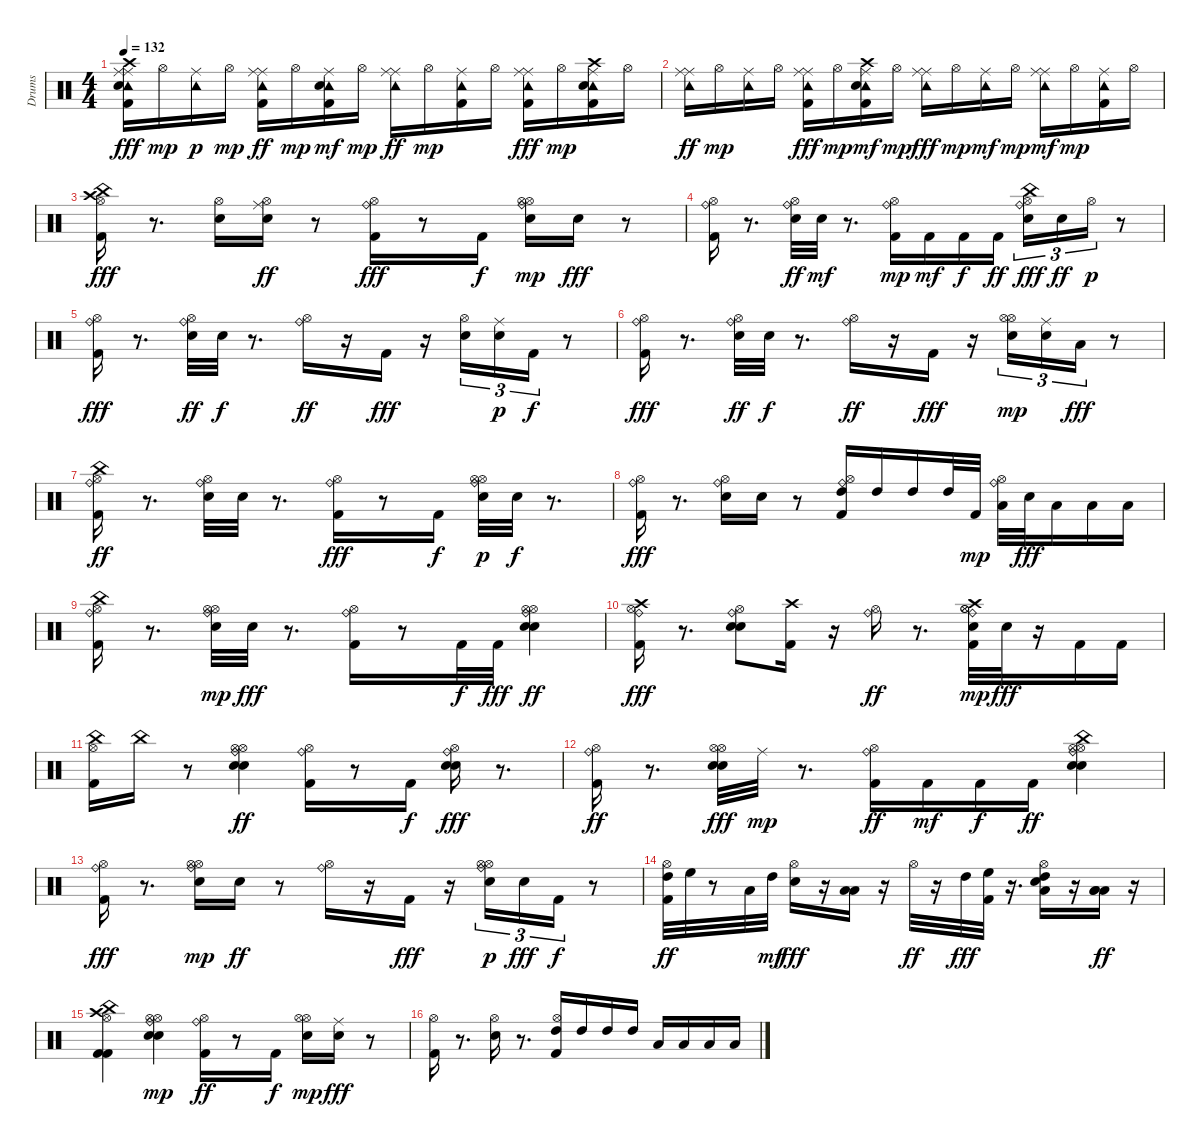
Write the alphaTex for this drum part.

\track ("Drums" "Drums") {instrument percussion}
\staff {score}
\articulation defaults
\ts (4 4)
\tempo 132
\clef neutral
\ks c
("Tambourine (hit)" "Ride (middle)" "Crash high (hit)" "Snare (hit) 2" "Kick (hit) 2" "Ride (middle)").16{dy fff} "Hi-Hat (open)".16{dy mp} ("Tambourine (hit)" "Ride (middle)").16{dy p} "Hi-Hat (open)".16{dy mp} ("Tambourine (hit)" "Ride (middle)" "Kick (hit) 2" "Ride (middle)").16{dy ff} "Hi-Hat (open)".16{dy mp} ("Tambourine (hit)" "Snare (hit) 2" "Kick (hit) 2" "Ride (middle)").16{dy mf} "Hi-Hat (open)".16{dy mp} ("Tambourine (hit)" "Ride (middle)" "Ride (middle)").16{dy ff} "Hi-Hat (open)".16{dy mp} ("Tambourine (hit)" "Kick (hit) 2" "Ride (middle)").16 "Hi-Hat (open)".16 ("Tambourine (hit)" "Ride (middle)" "Kick (hit) 2" "Ride (middle)").16{dy fff} "Hi-Hat (open)".16{dy mp} ("Tambourine (hit)" "Crash high (hit)" "Snare (hit) 2" "Kick (hit) 2" "Ride (middle)").16 "Hi-Hat (open)".16 |
("Tambourine (hit)" "Ride (middle)" "Ride (middle)").16{dy ff} "Hi-Hat (open)".16{dy mp} ("Tambourine (hit)" "Ride (middle)").16 "Hi-Hat (open)".16 ("Tambourine (hit)" "Ride (middle)" "Kick (hit) 2" "Ride (middle)").16{dy fff} "Hi-Hat (open)".16{dy mp} ("Tambourine (hit)" "Crash high (hit)" "Snare (hit) 2" "Kick (hit) 2" "Ride (middle)").16{dy mf} "Hi-Hat (open)".16{dy mp} ("Tambourine (hit)" "Ride (middle)" "Ride (middle)").16{dy fff} "Hi-Hat (open)".16{dy mp} ("Tambourine (hit)" "Ride (middle)").16{dy mf} "Hi-Hat (open)".16{dy mp} ("Tambourine (hit)" "Ride (middle)" "Ride (middle)").16{dy mf} "Hi-Hat (open)".16{dy mp} ("Tambourine (hit)" "Kick (hit) 2" "Ride (middle)").16 "Hi-Hat (open)".16 |
("China (hit)" "Hi-Hat (open)" "Kick (hit) 2" "Crash high (hit)").16{dy fff} r.8{d} ("Hi-Hat (open)" "Snare (hit) 2").16 ("Snare (hit) 2" "Hi-Hat (open)" "Ride (middle)").16{dy ff} r.8 ("Hi-Hat (open)" "Kick (hit) 2" "Ride (bell)").16{dy fff} r.8 "Kick (hit) 2".16{dy f} ("Hi-Hat (open)" "Snare (hit) 2" "Ride (bell)" "Hi-Hat (open)").16{dy mp} "Snare (hit) 2".16{dy fff} r.8 |
("Hi-Hat (open)" "Kick (hit) 2" "Ride (bell)").16 r.8{d} ("Hi-Hat (open)" "Snare (hit) 2" "Ride (bell)").32{dy ff} "Snare (hit) 2".32{dy mf} r.8{d} ("Hi-Hat (open)" "Kick (hit) 2" "Ride (bell)").16{dy mp} "Kick (hit) 2".16{dy mf} "Kick (hit) 2".16{dy f} "Kick (hit) 2".16{dy ff} ("Hi-Hat (open)" "China (hit)" "Snare (hit) 2" "Ride (bell)").16{tu (3 2) dy fff} "Snare (hit) 2".16{tu (3 2) dy ff} "Hi-Hat (open)".16{tu (3 2) dy p} r.8 |
("Hi-Hat (open)" "Kick (hit) 2" "Ride (bell)").16{dy fff} r.8{d} ("Hi-Hat (open)" "Snare (hit) 2" "Ride (bell)").32{dy ff} "Snare (hit) 2".32{dy f} r.8{d} ("Hi-Hat (open)" "Ride (bell)").16{dy ff} r.16 "Kick (hit) 2".16{dy fff} r.16 ("Hi-Hat (open)" "Snare (hit) 2").16{tu (3 2)} ("Snare (hit) 2" "Ride (middle)").16{tu (3 2) dy p} "Kick (hit) 2".16{tu (3 2) dy f} r.8 |
("Hi-Hat (open)" "Kick (hit) 2" "Ride (bell)").16{dy fff} r.8{d} ("Hi-Hat (open)" "Snare (hit) 2" "Ride (bell)").32{dy ff} "Snare (hit) 2".32{dy f} r.8{d} ("Hi-Hat (open)" "Ride (bell)").16{dy ff} r.16 "Kick (hit) 2".16{dy fff} r.16 ("Hi-Hat (open)" "Snare (hit) 2" "Hi-Hat (open)").16{tu (3 2) dy mp} ("Electric Snare (hit)" "Ride (middle)").16{tu (3 2)} "Low Tom (hit)".16{tu (3 2) dy fff} r.8 |
("China (hit)" "Hi-Hat (open)" "Kick (hit) 2" "Ride (bell)").16{dy ff} r.8{d} ("Hi-Hat (open)" "Snare (hit) 2" "Ride (bell)").32 "Snare (hit) 2".32 r.8{d} ("Hi-Hat (open)" "Kick (hit) 2" "Ride (bell)").16{dy fff} r.8 "Kick (hit) 2".16{dy f} ("Hi-Hat (open)" "Snare (hit) 2" "Ride (bell)" "Hi-Hat (open)").32{dy p} "Snare (hit) 2".32{dy f} r.8{d} |
("Hi-Hat (open)" "Kick (hit) 2" "Ride (bell)").16{dy fff} r.8{d} ("Hi-Hat (open)" "Snare (hit) 2" "Ride (bell)").16 "Snare (hit) 2".16 r.8 ("High Tom (hit)" "Hi-Hat (open)" "Kick (hit) 2" "Ride (bell)").16 "High Tom (hit)".16 "High Tom (hit)".16 "High Tom (hit)".32 "Kick (hit) 2".32{dy mp} ("Low Tom (hit)" "Ride (bell)" "Hi-Hat (open)").32 "Snare (hit) 2".32{dy fff} "Low Tom (hit)".16 "Low Floor Tom (hit)".16 "Low Floor Tom (hit)".16 |
("China (hit)" "Hi-Hat (open)" "Kick (hit) 2" "Ride (bell)").16 r.8{d} ("Hi-Hat (open)" "Snare (hit) 2" "Ride (bell)" "Hi-Hat (open)").32{dy mp} "Electric Snare (hit)".32{dy fff} r.8{d} ("Hi-Hat (open)" "Kick (hit) 2" "Ride (bell)").16 r.8 "Kick (hit) 2".32{dy f} "Kick (hit) 2".32{dy fff} ("Hi-Hat (open)" "Snare (hit) 2" "Ride (bell)" "Hi-Hat (open)" "Snare (hit) 2").4{dy ff} |
("Crash high (hit)" "Hi-Hat (open)" "Kick (hit) 2" "Ride (bell)").16{dy fff} r.8{d} ("Hi-Hat (open)" "Snare (hit) 2" "Ride (bell)" "Snare (hit) 2").8 ("Crash high (hit)" "Kick (hit) 2").16 r.16 ("Hi-Hat (open)" "Ride (bell)").16{dy ff} r.8{d} ("Crash high (hit)" "Hi-Hat (open)" "Snare (hit) 2" "Kick (hit) 2" "Ride (bell)" "Hi-Hat (open)").32{dy mp} "Electric Snare (hit)".32{dy fff} r.16 "Kick (hit) 2".16 "Kick (hit) 2".16 |
("China (hit)" "Hi-Hat (open)" "Kick (hit) 2").16 "China (hit)".16 r.8 ("Hi-Hat (open)" "Snare (hit) 2" "Ride (bell)" "Hi-Hat (open)" "Electric Snare (hit)").4{dy ff} ("Hi-Hat (open)" "Kick (hit) 2" "Ride (bell)").16 r.8 "Kick (hit) 2".16{dy f} ("Hi-Hat (open)" "Snare (hit) 2" "Ride (bell)" "Electric Snare (hit)").16{dy fff} r.8{d} |
("Hi-Hat (open)" "Kick (hit) 2" "Ride (bell)").16{dy ff} r.8{d} ("Hi-Hat (open)" "Snare (hit) 2" "Hi-Hat (open)" "Electric Snare (hit)").32{dy fff} "Ride (middle)".32{dy mp} r.8{d} ("Hi-Hat (open)" "Kick (hit) 2" "Ride (bell)").16{dy ff} "Kick (hit) 2".16{dy mf} "Kick (hit) 2".16{dy f} "Kick (hit) 2".16{dy ff} ("Hi-Hat (open)" "China (hit)" "Snare (hit) 2" "Ride (bell)" "Hi-Hat (open)" "Electric Snare (hit)").4 |
("Hi-Hat (open)" "Kick (hit) 2" "Ride (bell)").16{dy fff} r.8{d} ("Hi-Hat (open)" "Snare (hit) 2" "Ride (bell)" "Hi-Hat (open)").16{dy mp} "Electric Snare (hit)".16{dy ff} r.8 ("Hi-Hat (open)" "Ride (bell)").16 r.16 "Kick (hit) 2".16{dy fff} r.16 ("Hi-Hat (open)" "Snare (hit) 2" "Ride (bell)" "Hi-Hat (open)").16{tu (3 2) dy p} "Electric Snare (hit)".16{tu (3 2) dy fff} "Kick (hit) 2".16{tu (3 2) dy f} r.8 |
("Hi-Hat (open)" "Kick (hit) 2" "High Tom (hit)").32{dy ff} "High Floor Tom (hit)".32 r.8 "Low Tom (hit)".32 "High Tom (hit)".32{dy mf} ("Hi-Hat (open)" "Snare (hit) 2").16{dy fff} r.16 ("Low Floor Tom (hit)" "Low Tom (hit)").16 r.16 "Hi-Hat (open)".32{dy ff} r.16 "High Tom (hit)".32{dy fff} ("High Floor Tom (hit)" "Kick (hit) 2").32 r.16{d} ("High Tom (hit)" "Low Tom (hit)" "Hi-Hat (open)" "Snare (hit) 2").16 r.16 ("Low Tom (hit)" "Low Tom (hit)" "Low Floor Tom (hit)").16{dy ff} r.16 |
("Kick (hit) 2" "China (hit)" "Hi-Hat (open)" "Kick (hit) 2" "Crash high (hit)").4 ("Hi-Hat (open)" "Snare (hit) 2" "Ride (bell)" "Hi-Hat (open)" "Snare (hit) 2").4{dy mp} ("Hi-Hat (open)" "Kick (hit) 2" "Ride (bell)").16{dy ff} r.8 "Kick (hit) 2".16{dy f} ("Hi-Hat (open)" "Snare (hit) 2" "Hi-Hat (open)").16{dy mp} ("Electric Snare (hit)" "Ride (middle)").16{dy fff} r.8 |
("Hi-Hat (open)" "Kick (hit) 2").16 r.8{d} ("Hi-Hat (open)" "Snare (hit) 2").16 r.8{d} ("High Tom (hit)" "Hi-Hat (open)" "Kick (hit) 2").16 "High Tom (hit)".16 "High Tom (hit)".16 "High Tom (hit)".16 "Low Tom (hit)".16 "Low Tom (hit)".16 "Low Floor Tom (hit)".16 "Low Floor Tom (hit)".16
